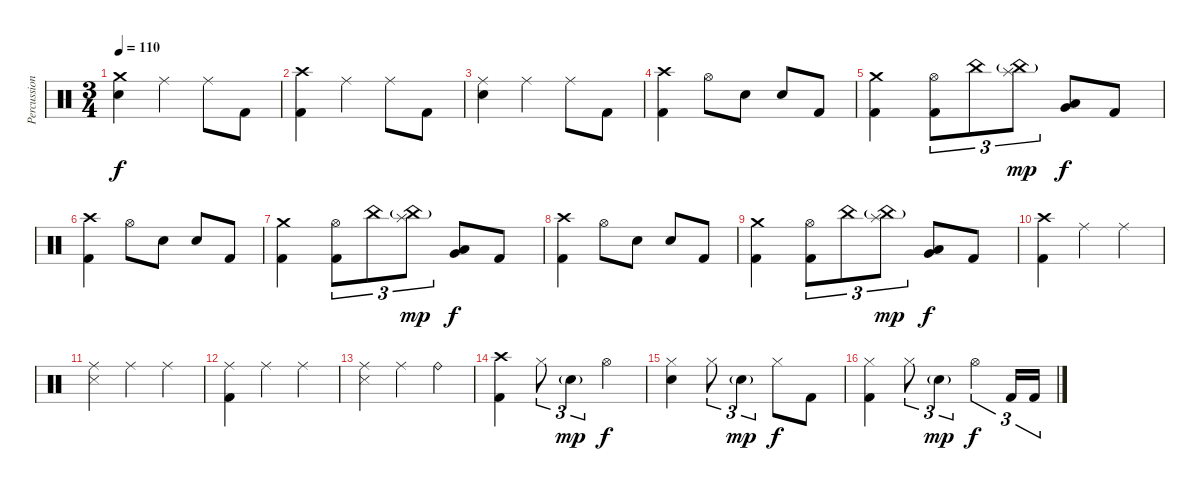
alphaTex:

\track ("Percussion" "Percussion") {instrument percussion}
\staff {score}
\articulation defaults
\ts (3 4)
\tempo 110
\clef neutral
\ks c
("Crash medium (hit)" "Snare (hit) 2").4{dy f} "Ride (middle)".4 "Ride (middle)".8 "Kick (hit) 2".8 |
("Crash high (hit)" "Kick (hit) 2").4 "Ride (middle)".4 "Ride (middle)".8 "Kick (hit) 2".8 |
("Ride (middle)" "Snare (hit) 2").4 "Ride (middle)".4 "Ride (middle)".8 "Kick (hit) 2".8 |
("Crash high (hit)" "Kick (hit) 2").4 "Hi-Hat (open)".8 "Snare (hit) 2".8 "Snare (hit) 2".8 "Kick (hit) 2".8 |
("Crash medium (hit)" "Kick (hit) 2").4 ("Hi-Hat (open)" "Kick (hit) 2").8{tu (3 2)} "China (hit)".8{tu (3 2)} ("China (hit)"{g} "Splash (hit)").8{tu (3 2) dy mp} ("Low Tom (hit)" "Very Low Tom (hit)").8{dy f} "Kick (hit) 2".8 |
("Crash high (hit)" "Kick (hit) 2").4 "Hi-Hat (open)".8 "Snare (hit) 2".8 "Snare (hit) 2".8 "Kick (hit) 2".8 |
("Crash medium (hit)" "Kick (hit) 2").4 ("Hi-Hat (open)" "Kick (hit) 2").8{tu (3 2)} "China (hit)".8{tu (3 2)} ("China (hit)"{g} "Splash (hit)").8{tu (3 2) dy mp} ("Low Tom (hit)" "Very Low Tom (hit)").8{dy f} "Kick (hit) 2".8 |
("Crash high (hit)" "Kick (hit) 2").4 "Hi-Hat (open)".8 "Snare (hit) 2".8 "Snare (hit) 2".8 "Kick (hit) 2".8 |
("Crash medium (hit)" "Kick (hit) 2").4 ("Hi-Hat (open)" "Kick (hit) 2").8{tu (3 2)} "China (hit)".8{tu (3 2)} ("China (hit)"{g} "Splash (hit)").8{tu (3 2) dy mp} ("Low Tom (hit)" "Very Low Tom (hit)").8{dy f} "Kick (hit) 2".8 |
("Crash high (hit)" "Kick (hit) 2").4 "Ride (middle)".4 "Ride (middle)".4 |
("Ride (middle)" "Snare (side stick) 3").4 "Ride (middle)".4 "Ride (middle)".4 |
("Ride (middle)" "Kick (hit) 2").4 "Ride (middle)".4 "Ride (middle)".4 |
("Ride (middle)" "Snare (side stick) 3").4 "Ride (middle)".4 "Ride (bell)".4 |
("Crash high (hit)" "Kick (hit) 2").4 "Hi-Hat (closed)".8{tu (3 2)} "Snare (hit) 2"{g}.4{tu (3 2) dy mp} "Hi-Hat (open)".4{dy f} |
("Hi-Hat (closed)" "Snare (hit) 2").4 "Hi-Hat (closed)".8{tu (3 2)} "Snare (hit) 2"{g}.4{tu (3 2) dy mp} "Hi-Hat (closed)".8{dy f} "Kick (hit) 2".8 |
("Hi-Hat (closed)" "Kick (hit) 2").4 "Hi-Hat (closed)".8{tu (3 2)} "Snare (hit) 2"{g}.4{tu (3 2) dy mp} "Hi-Hat (open)".4{tu (3 2) dy f} "Kick (hit) 2".16{tu (3 2)} "Kick (hit) 2".16{tu (3 2)}
